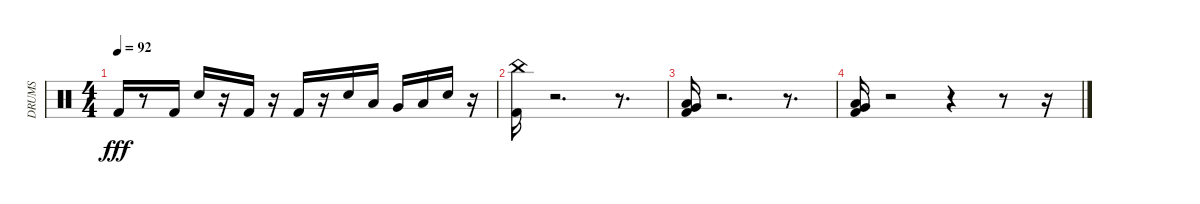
\track ("DRUMS" "DRUMS") {instrument percussion}
\staff {score}
\articulation defaults
\ts (4 4)
\tempo 92
\clef neutral
\ks c "Kick (hit) 2".16{dy fff}
r.8 "Kick (hit) 2".16 "Electric Snare (hit)".16 r.16 "Kick (hit) 2".16 r.16 "Kick (hit) 2".16 r.16 "Electric Snare (hit)".16 "Low Tom (hit)".16 "Very Low Tom (hit)".16 "Low Floor Tom (hit)".16 "Electric Snare (hit)".16 r.16 |
("Kick (hit) 2" "China (hit)").16 r.2{d} r.8{d} |
("Kick (hit) 2" "Low Tom (hit)" "Very Low Tom (hit)").16 r.2{d} r.8{d} |
("Kick (hit) 2" "Low Floor Tom (hit)" "Very Low Tom (hit)").16 r.2 r.4 r.8 r.16
